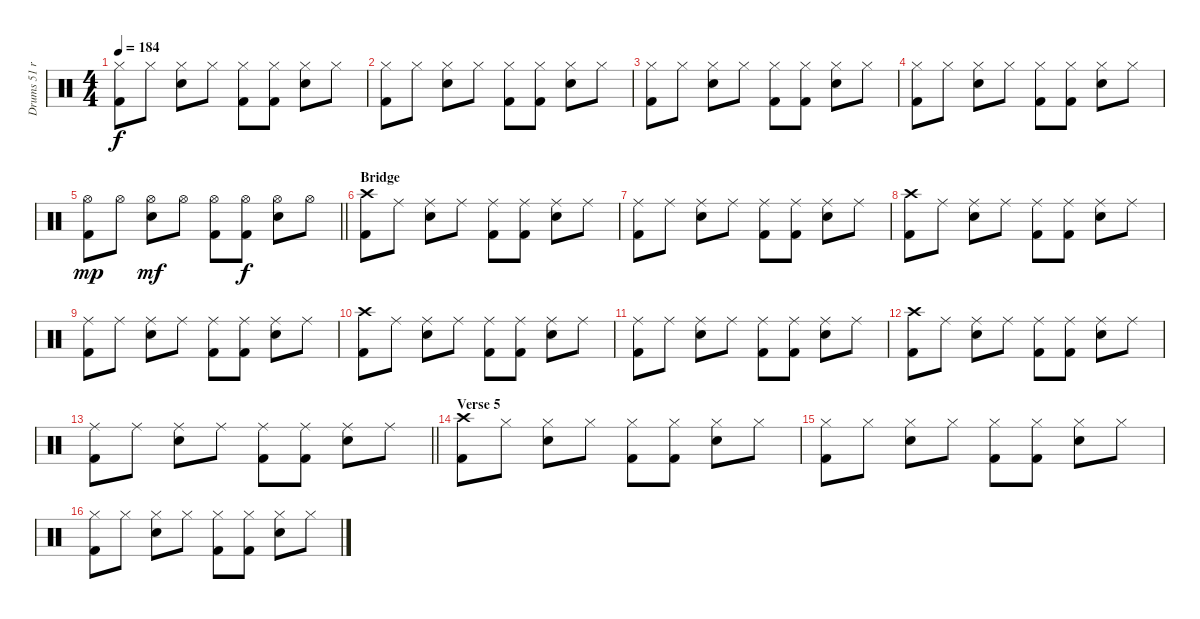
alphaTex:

\track ("Drums 51 ride" "Drums 51 r") {mute instrument percussion}
\staff {score}
\articulation defaults
\ts (4 4)
\tempo 184
\clef neutral
\ks c
("Hi-Hat (closed)" "Kick (hit) 2").8{dy f} "Hi-Hat (closed)".8 ("Hi-Hat (closed)" "Snare (hit) 2").8 "Hi-Hat (closed)".8 ("Hi-Hat (closed)" "Kick (hit) 2").8 ("Hi-Hat (closed)" "Kick (hit) 2").8 ("Hi-Hat (closed)" "Snare (hit) 2").8 "Hi-Hat (closed)".8 |
("Hi-Hat (closed)" "Kick (hit) 2").8 "Hi-Hat (closed)".8 ("Hi-Hat (closed)" "Snare (hit) 2").8 "Hi-Hat (closed)".8 ("Hi-Hat (closed)" "Kick (hit) 2").8 ("Hi-Hat (closed)" "Kick (hit) 2").8 ("Hi-Hat (closed)" "Snare (hit) 2").8 "Hi-Hat (closed)".8 |
("Hi-Hat (closed)" "Kick (hit) 2").8 "Hi-Hat (closed)".8 ("Hi-Hat (closed)" "Snare (hit) 2").8 "Hi-Hat (closed)".8 ("Hi-Hat (closed)" "Kick (hit) 2").8 ("Hi-Hat (closed)" "Kick (hit) 2").8 ("Hi-Hat (closed)" "Snare (hit) 2").8 "Hi-Hat (closed)".8 |
("Hi-Hat (closed)" "Kick (hit) 2").8 "Hi-Hat (closed)".8 ("Hi-Hat (closed)" "Snare (hit) 2").8 "Hi-Hat (closed)".8 ("Hi-Hat (closed)" "Kick (hit) 2").8 ("Hi-Hat (closed)" "Kick (hit) 2").8 ("Hi-Hat (closed)" "Snare (hit) 2").8 "Hi-Hat (closed)".8 |
\barLineRight lightlight
("Hi-Hat (open)" "Kick (hit) 2").8{dy mp} "Hi-Hat (open)".8 ("Hi-Hat (open)" "Snare (hit) 2").8{dy mf} "Hi-Hat (open)".8 ("Hi-Hat (open)" "Kick (hit) 2").8 ("Hi-Hat (open)" "Kick (hit) 2").8{dy f} ("Hi-Hat (open)" "Snare (hit) 2").8 "Hi-Hat (open)".8 |
\section ("" "Bridge")
("Crash high (hit)" "Kick (hit) 2").8 "Ride (middle)".8 ("Ride (middle)" "Snare (hit) 2").8 "Ride (middle)".8 ("Ride (middle)" "Kick (hit) 2").8 ("Ride (middle)" "Kick (hit) 2").8 ("Ride (middle)" "Snare (hit) 2").8 "Ride (middle)".8 |
("Ride (middle)" "Kick (hit) 2").8 "Ride (middle)".8 ("Ride (middle)" "Snare (hit) 2").8 "Ride (middle)".8 ("Ride (middle)" "Kick (hit) 2").8 ("Ride (middle)" "Kick (hit) 2").8 ("Ride (middle)" "Snare (hit) 2").8 "Ride (middle)".8 |
("Crash high (hit)" "Kick (hit) 2").8 "Ride (middle)".8 ("Ride (middle)" "Snare (hit) 2").8 "Ride (middle)".8 ("Ride (middle)" "Kick (hit) 2").8 ("Ride (middle)" "Kick (hit) 2").8 ("Ride (middle)" "Snare (hit) 2").8 "Ride (middle)".8 |
("Ride (middle)" "Kick (hit) 2").8 "Ride (middle)".8 ("Ride (middle)" "Snare (hit) 2").8 "Ride (middle)".8 ("Ride (middle)" "Kick (hit) 2").8 ("Ride (middle)" "Kick (hit) 2").8 ("Ride (middle)" "Snare (hit) 2").8 "Ride (middle)".8 |
("Crash high (hit)" "Kick (hit) 2").8 "Ride (middle)".8 ("Ride (middle)" "Snare (hit) 2").8 "Ride (middle)".8 ("Ride (middle)" "Kick (hit) 2").8 ("Ride (middle)" "Kick (hit) 2").8 ("Ride (middle)" "Snare (hit) 2").8 "Ride (middle)".8 |
("Ride (middle)" "Kick (hit) 2").8 "Ride (middle)".8 ("Ride (middle)" "Snare (hit) 2").8 "Ride (middle)".8 ("Ride (middle)" "Kick (hit) 2").8 ("Ride (middle)" "Kick (hit) 2").8 ("Ride (middle)" "Snare (hit) 2").8 "Ride (middle)".8 |
("Crash high (hit)" "Kick (hit) 2").8 "Ride (middle)".8 ("Ride (middle)" "Snare (hit) 2").8 "Ride (middle)".8 ("Ride (middle)" "Kick (hit) 2").8 ("Ride (middle)" "Kick (hit) 2").8 ("Ride (middle)" "Snare (hit) 2").8 "Ride (middle)".8 |
\barLineRight lightlight
("Ride (middle)" "Kick (hit) 2").8 "Ride (middle)".8 ("Ride (middle)" "Snare (hit) 2").8 "Ride (middle)".8 ("Ride (middle)" "Kick (hit) 2").8 ("Ride (middle)" "Kick (hit) 2").8 ("Ride (middle)" "Snare (hit) 2").8 "Ride (middle)".8 |
\section ("" "Verse 5")
("Crash high (hit)" "Kick (hit) 2").8 "Hi-Hat (closed)".8 ("Hi-Hat (closed)" "Snare (hit) 2").8 "Hi-Hat (closed)".8 ("Hi-Hat (closed)" "Kick (hit) 2").8 ("Hi-Hat (closed)" "Kick (hit) 2").8 ("Hi-Hat (closed)" "Snare (hit) 2").8 "Hi-Hat (closed)".8 |
("Hi-Hat (closed)" "Kick (hit) 2").8 "Hi-Hat (closed)".8 ("Hi-Hat (closed)" "Snare (hit) 2").8 "Hi-Hat (closed)".8 ("Hi-Hat (closed)" "Kick (hit) 2").8 ("Hi-Hat (closed)" "Kick (hit) 2").8 ("Hi-Hat (closed)" "Snare (hit) 2").8 "Hi-Hat (closed)".8 |
("Hi-Hat (closed)" "Kick (hit) 2").8 "Hi-Hat (closed)".8 ("Hi-Hat (closed)" "Snare (hit) 2").8 "Hi-Hat (closed)".8 ("Hi-Hat (closed)" "Kick (hit) 2").8 ("Hi-Hat (closed)" "Kick (hit) 2").8 ("Hi-Hat (closed)" "Snare (hit) 2").8 "Hi-Hat (closed)".8
